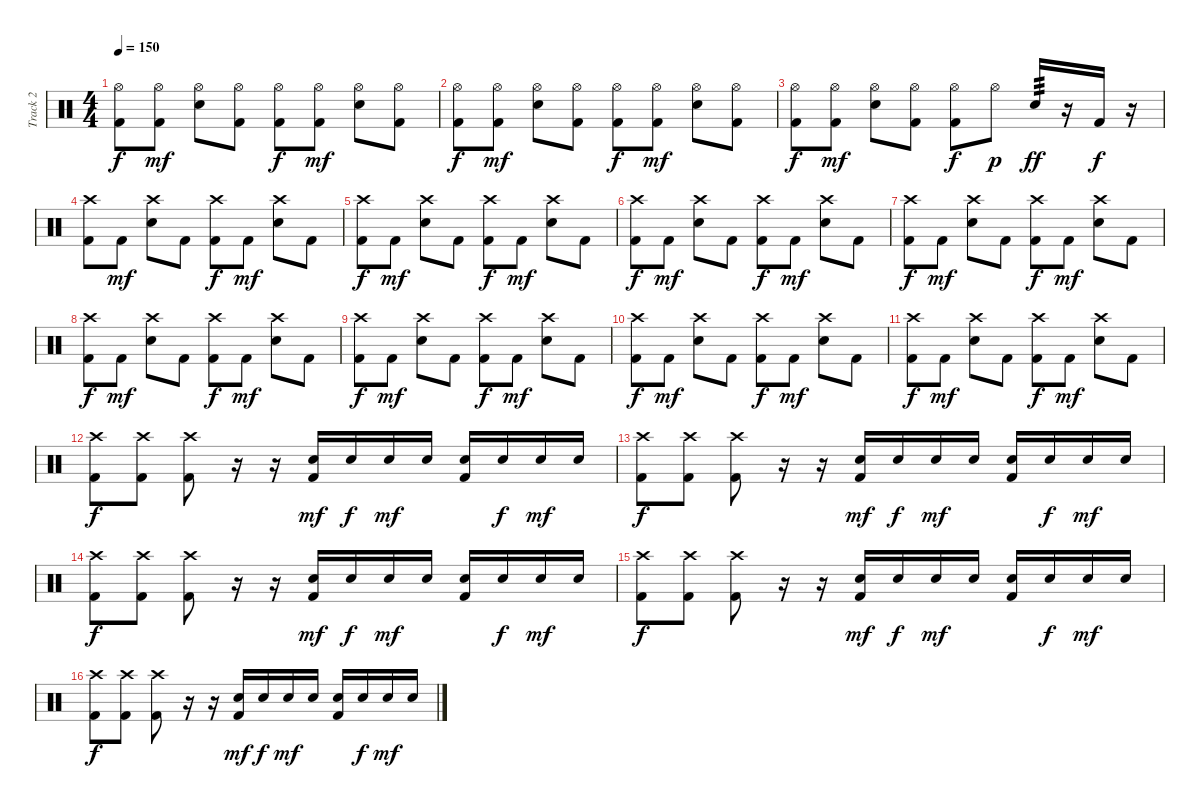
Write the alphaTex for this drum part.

\track ("Track 2" "Track 2") {instrument percussion}
\staff {score}
\articulation defaults
\ts (4 4)
\tempo 150
\clef neutral
\ks c
("Hi-Hat (open)" "Kick (hit) 2").8{dy f} ("Hi-Hat (open)" "Kick (hit) 2").8{dy mf} ("Hi-Hat (open)" "Electric Snare (hit)").8 ("Hi-Hat (open)" "Kick (hit) 2").8 ("Hi-Hat (open)" "Kick (hit) 2").8{dy f} ("Hi-Hat (open)" "Kick (hit) 2").8{dy mf} ("Hi-Hat (open)" "Electric Snare (hit)").8 ("Hi-Hat (open)" "Kick (hit) 2").8 |
("Hi-Hat (open)" "Kick (hit) 2").8{dy f} ("Hi-Hat (open)" "Kick (hit) 2").8{dy mf} ("Hi-Hat (open)" "Electric Snare (hit)").8 ("Hi-Hat (open)" "Kick (hit) 2").8 ("Hi-Hat (open)" "Kick (hit) 2").8{dy f} ("Hi-Hat (open)" "Kick (hit) 2").8{dy mf} ("Hi-Hat (open)" "Electric Snare (hit)").8 ("Hi-Hat (open)" "Kick (hit) 2").8 |
("Hi-Hat (open)" "Kick (hit) 2").8{dy f} ("Hi-Hat (open)" "Kick (hit) 2").8{dy mf} ("Hi-Hat (open)" "Electric Snare (hit)").8 ("Hi-Hat (open)" "Kick (hit) 2").8 ("Hi-Hat (open)" "Kick (hit) 2").8{dy f} "Hi-Hat (open)".8{dy p} "Electric Snare (hit)".16{tp 3 dy ff} r.16 "Kick (hit) 2".16{dy f} r.16 |
("Crash high (hit)" "Kick (hit) 2").8 "Kick (hit) 2".8{dy mf} ("Crash high (hit)" "Electric Snare (hit)").8 "Kick (hit) 2".8 ("Crash high (hit)" "Kick (hit) 2").8{dy f} "Kick (hit) 2".8{dy mf} ("Crash high (hit)" "Electric Snare (hit)").8 "Kick (hit) 2".8 |
("Crash high (hit)" "Kick (hit) 2").8{dy f} "Kick (hit) 2".8{dy mf} ("Crash high (hit)" "Electric Snare (hit)").8 "Kick (hit) 2".8 ("Crash high (hit)" "Kick (hit) 2").8{dy f} "Kick (hit) 2".8{dy mf} ("Crash high (hit)" "Electric Snare (hit)").8 "Kick (hit) 2".8 |
("Crash high (hit)" "Kick (hit) 2").8{dy f} "Kick (hit) 2".8{dy mf} ("Crash high (hit)" "Electric Snare (hit)").8 "Kick (hit) 2".8 ("Crash high (hit)" "Kick (hit) 2").8{dy f} "Kick (hit) 2".8{dy mf} ("Crash high (hit)" "Electric Snare (hit)").8 "Kick (hit) 2".8 |
("Crash high (hit)" "Kick (hit) 2").8{dy f} "Kick (hit) 2".8{dy mf} ("Crash high (hit)" "Electric Snare (hit)").8 "Kick (hit) 2".8 ("Crash high (hit)" "Kick (hit) 2").8{dy f} "Kick (hit) 2".8{dy mf} ("Crash high (hit)" "Electric Snare (hit)").8 "Kick (hit) 2".8 |
("Crash high (hit)" "Kick (hit) 2").8{dy f} "Kick (hit) 2".8{dy mf} ("Crash high (hit)" "Electric Snare (hit)").8 "Kick (hit) 2".8 ("Crash high (hit)" "Kick (hit) 2").8{dy f} "Kick (hit) 2".8{dy mf} ("Crash high (hit)" "Electric Snare (hit)").8 "Kick (hit) 2".8 |
("Crash high (hit)" "Kick (hit) 2").8{dy f} "Kick (hit) 2".8{dy mf} ("Crash high (hit)" "Electric Snare (hit)").8 "Kick (hit) 2".8 ("Crash high (hit)" "Kick (hit) 2").8{dy f} "Kick (hit) 2".8{dy mf} ("Crash high (hit)" "Electric Snare (hit)").8 "Kick (hit) 2".8 |
("Crash high (hit)" "Kick (hit) 2").8{dy f} "Kick (hit) 2".8{dy mf} ("Crash high (hit)" "Electric Snare (hit)").8 "Kick (hit) 2".8 ("Crash high (hit)" "Kick (hit) 2").8{dy f} "Kick (hit) 2".8{dy mf} ("Crash high (hit)" "Electric Snare (hit)").8 "Kick (hit) 2".8 |
("Crash high (hit)" "Kick (hit) 2").8{dy f} "Kick (hit) 2".8{dy mf} ("Crash high (hit)" "Electric Snare (hit)").8 "Kick (hit) 2".8 ("Crash high (hit)" "Kick (hit) 2").8{dy f} "Kick (hit) 2".8{dy mf} ("Crash high (hit)" "Electric Snare (hit)").8 "Kick (hit) 2".8 |
("Crash high (hit)" "Kick (hit) 2").8{dy f} ("Crash high (hit)" "Kick (hit) 2").8 ("Crash high (hit)" "Kick (hit) 2").8 r.16 r.16 ("Electric Snare (hit)" "Kick (hit) 2").16{dy mf} "Electric Snare (hit)".16{dy f} "Electric Snare (hit)".16{dy mf} "Electric Snare (hit)".16 ("Electric Snare (hit)" "Kick (hit) 2").16 "Electric Snare (hit)".16{dy f} "Electric Snare (hit)".16{dy mf} "Electric Snare (hit)".16 |
("Crash high (hit)" "Kick (hit) 2").8{dy f} ("Crash high (hit)" "Kick (hit) 2").8 ("Crash high (hit)" "Kick (hit) 2").8 r.16 r.16 ("Electric Snare (hit)" "Kick (hit) 2").16{dy mf} "Electric Snare (hit)".16{dy f} "Electric Snare (hit)".16{dy mf} "Electric Snare (hit)".16 ("Electric Snare (hit)" "Kick (hit) 2").16 "Electric Snare (hit)".16{dy f} "Electric Snare (hit)".16{dy mf} "Electric Snare (hit)".16 |
("Crash high (hit)" "Kick (hit) 2").8{dy f} ("Crash high (hit)" "Kick (hit) 2").8 ("Crash high (hit)" "Kick (hit) 2").8 r.16 r.16 ("Electric Snare (hit)" "Kick (hit) 2").16{dy mf} "Electric Snare (hit)".16{dy f} "Electric Snare (hit)".16{dy mf} "Electric Snare (hit)".16 ("Electric Snare (hit)" "Kick (hit) 2").16 "Electric Snare (hit)".16{dy f} "Electric Snare (hit)".16{dy mf} "Electric Snare (hit)".16 |
("Crash high (hit)" "Kick (hit) 2").8{dy f} ("Crash high (hit)" "Kick (hit) 2").8 ("Crash high (hit)" "Kick (hit) 2").8 r.16 r.16 ("Electric Snare (hit)" "Kick (hit) 2").16{dy mf} "Electric Snare (hit)".16{dy f} "Electric Snare (hit)".16{dy mf} "Electric Snare (hit)".16 ("Electric Snare (hit)" "Kick (hit) 2").16 "Electric Snare (hit)".16{dy f} "Electric Snare (hit)".16{dy mf} "Electric Snare (hit)".16 |
("Crash high (hit)" "Kick (hit) 2").8{dy f} ("Crash high (hit)" "Kick (hit) 2").8 ("Crash high (hit)" "Kick (hit) 2").8 r.16 r.16 ("Electric Snare (hit)" "Kick (hit) 2").16{dy mf} "Electric Snare (hit)".16{dy f} "Electric Snare (hit)".16{dy mf} "Electric Snare (hit)".16 ("Electric Snare (hit)" "Kick (hit) 2").16 "Electric Snare (hit)".16{dy f} "Electric Snare (hit)".16{dy mf} "Electric Snare (hit)".16
